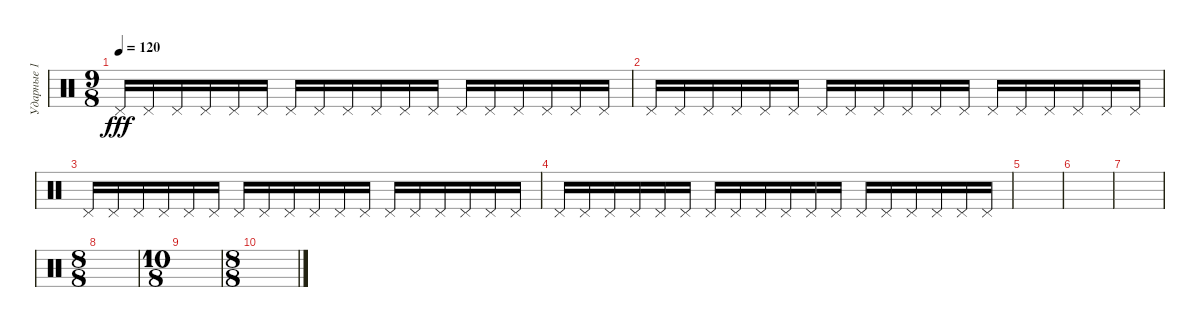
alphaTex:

\track ("Ударные 1" "Ударные 1") {instrument percussion}
\staff {score}
\articulation defaults
\ts (9 8)
\tempo 120
\clef neutral
\ks c "Pedal Hi-Hat (hit)".16{dy fff} "Pedal Hi-Hat (hit)".16 "Pedal Hi-Hat (hit)".16 "Pedal Hi-Hat (hit)".16 "Pedal Hi-Hat (hit)".16 "Pedal Hi-Hat (hit)".16 "Pedal Hi-Hat (hit)".16 "Pedal Hi-Hat (hit)".16 "Pedal Hi-Hat (hit)".16 "Pedal Hi-Hat (hit)".16 "Pedal Hi-Hat (hit)".16 "Pedal Hi-Hat (hit)".16 "Pedal Hi-Hat (hit)".16 "Pedal Hi-Hat (hit)".16 "Pedal Hi-Hat (hit)".16 "Pedal Hi-Hat (hit)".16 "Pedal Hi-Hat (hit)".16 "Pedal Hi-Hat (hit)".16
|
"Pedal Hi-Hat (hit)".16 "Pedal Hi-Hat (hit)".16 "Pedal Hi-Hat (hit)".16 "Pedal Hi-Hat (hit)".16 "Pedal Hi-Hat (hit)".16 "Pedal Hi-Hat (hit)".16 "Pedal Hi-Hat (hit)".16 "Pedal Hi-Hat (hit)".16 "Pedal Hi-Hat (hit)".16 "Pedal Hi-Hat (hit)".16 "Pedal Hi-Hat (hit)".16 "Pedal Hi-Hat (hit)".16 "Pedal Hi-Hat (hit)".16 "Pedal Hi-Hat (hit)".16 "Pedal Hi-Hat (hit)".16 "Pedal Hi-Hat (hit)".16 "Pedal Hi-Hat (hit)".16 "Pedal Hi-Hat (hit)".16 |
"Pedal Hi-Hat (hit)".16 "Pedal Hi-Hat (hit)".16 "Pedal Hi-Hat (hit)".16 "Pedal Hi-Hat (hit)".16 "Pedal Hi-Hat (hit)".16 "Pedal Hi-Hat (hit)".16 "Pedal Hi-Hat (hit)".16 "Pedal Hi-Hat (hit)".16 "Pedal Hi-Hat (hit)".16 "Pedal Hi-Hat (hit)".16 "Pedal Hi-Hat (hit)".16 "Pedal Hi-Hat (hit)".16 "Pedal Hi-Hat (hit)".16 "Pedal Hi-Hat (hit)".16 "Pedal Hi-Hat (hit)".16 "Pedal Hi-Hat (hit)".16 "Pedal Hi-Hat (hit)".16 "Pedal Hi-Hat (hit)".16 |
"Pedal Hi-Hat (hit)".16 "Pedal Hi-Hat (hit)".16 "Pedal Hi-Hat (hit)".16 "Pedal Hi-Hat (hit)".16 "Pedal Hi-Hat (hit)".16 "Pedal Hi-Hat (hit)".16 "Pedal Hi-Hat (hit)".16 "Pedal Hi-Hat (hit)".16 "Pedal Hi-Hat (hit)".16 "Pedal Hi-Hat (hit)".16 "Pedal Hi-Hat (hit)".16 "Pedal Hi-Hat (hit)".16 "Pedal Hi-Hat (hit)".16 "Pedal Hi-Hat (hit)".16 "Pedal Hi-Hat (hit)".16 "Pedal Hi-Hat (hit)".16 "Pedal Hi-Hat (hit)".16 "Pedal Hi-Hat (hit)".16 |
|
|
|
\ts (8 8)
|
\ts (10 8)
|
\ts (8 8)
